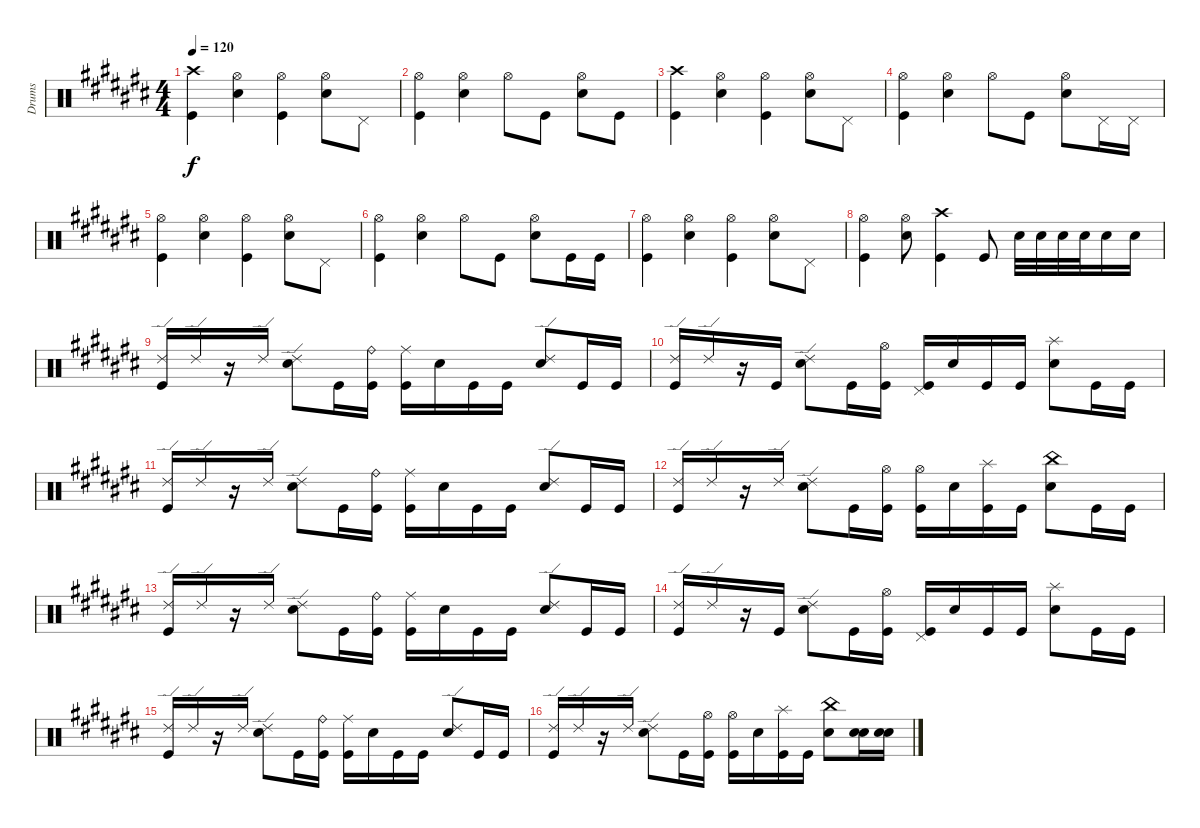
\track ("Drums" "Drums") {instrument percussion}
\staff {score}
\articulation defaults
\ts (4 4)
\tempo 120
\clef neutral
\ks c#
("Crash high (hit)" "Kick (hit)").4{dy f} ("Hi-Hat (open)" "Electric Snare (hit)").4 ("Hi-Hat (open)" "Kick (hit)").4 ("Hi-Hat (open)" "Electric Snare (hit)").8 "Pedal Hi-Hat (hit)".8 |
("Hi-Hat (open)" "Kick (hit)").4 ("Hi-Hat (open)" "Electric Snare (hit)").4 "Hi-Hat (open)".8 "Kick (hit)".8 ("Hi-Hat (open)" "Electric Snare (hit)").8 "Kick (hit)".8 |
("Crash high (hit)" "Kick (hit)").4 ("Hi-Hat (open)" "Electric Snare (hit)").4 ("Hi-Hat (open)" "Kick (hit)").4 ("Hi-Hat (open)" "Electric Snare (hit)").8 "Pedal Hi-Hat (hit)".8 |
("Hi-Hat (open)" "Kick (hit)").4 ("Hi-Hat (open)" "Electric Snare (hit)").4 "Hi-Hat (open)".8 "Kick (hit)".8 ("Hi-Hat (open)" "Electric Snare (hit)").8 "Pedal Hi-Hat (hit)".16 "Pedal Hi-Hat (hit)".16 |
("Hi-Hat (open)" "Kick (hit)").4 ("Hi-Hat (open)" "Electric Snare (hit)").4 ("Hi-Hat (open)" "Kick (hit)").4 ("Hi-Hat (open)" "Electric Snare (hit)").8 "Pedal Hi-Hat (hit)".8 |
("Hi-Hat (open)" "Kick (hit)").4 ("Hi-Hat (open)" "Electric Snare (hit)").4 "Hi-Hat (open)".8 "Kick (hit)".8 ("Hi-Hat (open)" "Electric Snare (hit)").8 "Kick (hit)".16 "Kick (hit)".16 |
("Hi-Hat (open)" "Kick (hit)").4 ("Hi-Hat (open)" "Electric Snare (hit)").4 ("Hi-Hat (open)" "Kick (hit)").4 ("Hi-Hat (open)" "Electric Snare (hit)").8 "Pedal Hi-Hat (hit)".8 |
("Hi-Hat (open)" "Kick (hit)").4 ("Hi-Hat (open)" "Electric Snare (hit)").8 ("Crash high (hit)" "Kick (hit)").4 "Kick (hit)".8 "Electric Snare (hit)".32 "Electric Snare (hit)".32 "Electric Snare (hit)".32 "Electric Snare (hit)".32 "Electric Snare (hit)".16 "Electric Snare (hit)".16 |
\section ("" "")
("Ride (edge) 2" "Kick (hit)").16 "Ride (edge) 2".16 r.16 "Ride (edge) 2".16 ("Ride (edge) 2" "Electric Snare (hit)").8 "Kick (hit)".16 ("Ride (bell)" "Kick (hit)").16 ("Ride (middle)" "Kick (hit)").16 "Electric Snare (hit)".16 "Kick (hit)".16 "Kick (hit)".16 ("Ride (edge) 2" "Electric Snare (hit)").8 "Kick (hit)".16 "Kick (hit)".16 |
("Ride (edge) 2" "Kick (hit)").16 "Ride (edge) 2".16 r.16 "Kick (hit)".16 ("Ride (edge) 2" "Electric Snare (hit)").8 "Kick (hit)".16 ("Hi-Hat (open)" "Kick (hit)").16 ("Pedal Hi-Hat (hit)" "Kick (hit)").16 "Electric Snare (hit)".16 "Kick (hit)".16 "Kick (hit)".16 ("Splash (hit)" "Electric Snare (hit)").8 "Kick (hit)".16 "Kick (hit)".16 |
("Ride (edge) 2" "Kick (hit)").16 "Ride (edge) 2".16 r.16 "Ride (edge) 2".16 ("Ride (edge) 2" "Electric Snare (hit)").8 "Kick (hit)".16 ("Ride (bell)" "Kick (hit)").16 ("Ride (middle)" "Kick (hit)").16 "Electric Snare (hit)".16 "Kick (hit)".16 "Kick (hit)".16 ("Ride (edge) 2" "Electric Snare (hit)").8 "Kick (hit)".16 "Kick (hit)".16 |
("Ride (edge) 2" "Kick (hit)").16 "Ride (edge) 2".16 r.16 "Ride (edge) 2".16 ("Ride (edge) 2" "Electric Snare (hit)").8 "Kick (hit)".16 ("Hi-Hat (open)" "Kick (hit)").16 ("Hi-Hat (open)" "Kick (hit)").16 "Electric Snare (hit)".16 ("Splash (hit)" "Kick (hit)").16 "Kick (hit)".16 ("China (hit)" "Electric Snare (hit)").8 "Kick (hit)".16 "Kick (hit)".16 |
("Ride (edge) 2" "Kick (hit)").16 "Ride (edge) 2".16 r.16 "Ride (edge) 2".16 ("Ride (edge) 2" "Electric Snare (hit)").8 "Kick (hit)".16 ("Ride (bell)" "Kick (hit)").16 ("Ride (middle)" "Kick (hit)").16 "Electric Snare (hit)".16 "Kick (hit)".16 "Kick (hit)".16 ("Ride (edge) 2" "Electric Snare (hit)").8 "Kick (hit)".16 "Kick (hit)".16 |
("Ride (edge) 2" "Kick (hit)").16 "Ride (edge) 2".16 r.16 "Kick (hit)".16 ("Ride (edge) 2" "Electric Snare (hit)").8 "Kick (hit)".16 ("Hi-Hat (open)" "Kick (hit)").16 ("Pedal Hi-Hat (hit)" "Kick (hit)").16 "Electric Snare (hit)".16 "Kick (hit)".16 "Kick (hit)".16 ("Splash (hit)" "Electric Snare (hit)").8 "Kick (hit)".16 "Kick (hit)".16 |
("Ride (edge) 2" "Kick (hit)").16 "Ride (edge) 2".16 r.16 "Ride (edge) 2".16 ("Ride (edge) 2" "Electric Snare (hit)").8 "Kick (hit)".16 ("Ride (bell)" "Kick (hit)").16 ("Ride (middle)" "Kick (hit)").16 "Electric Snare (hit)".16 "Kick (hit)".16 "Kick (hit)".16 ("Ride (edge) 2" "Electric Snare (hit)").8 "Kick (hit)".16 "Kick (hit)".16 |
("Ride (edge) 2" "Kick (hit)").16 "Ride (edge) 2".16 r.16 "Ride (edge) 2".16 ("Ride (edge) 2" "Electric Snare (hit)").8 "Kick (hit)".16 ("Hi-Hat (open)" "Kick (hit)").16 ("Hi-Hat (open)" "Kick (hit)").16 "Electric Snare (hit)".16 ("Splash (hit)" "Kick (hit)").16 "Kick (hit)".16 ("China (hit)" "Electric Snare (hit)").8 ("Electric Snare (hit)" "Electric Snare (hit)").16 ("Electric Snare (hit)" "Electric Snare (hit)").16
